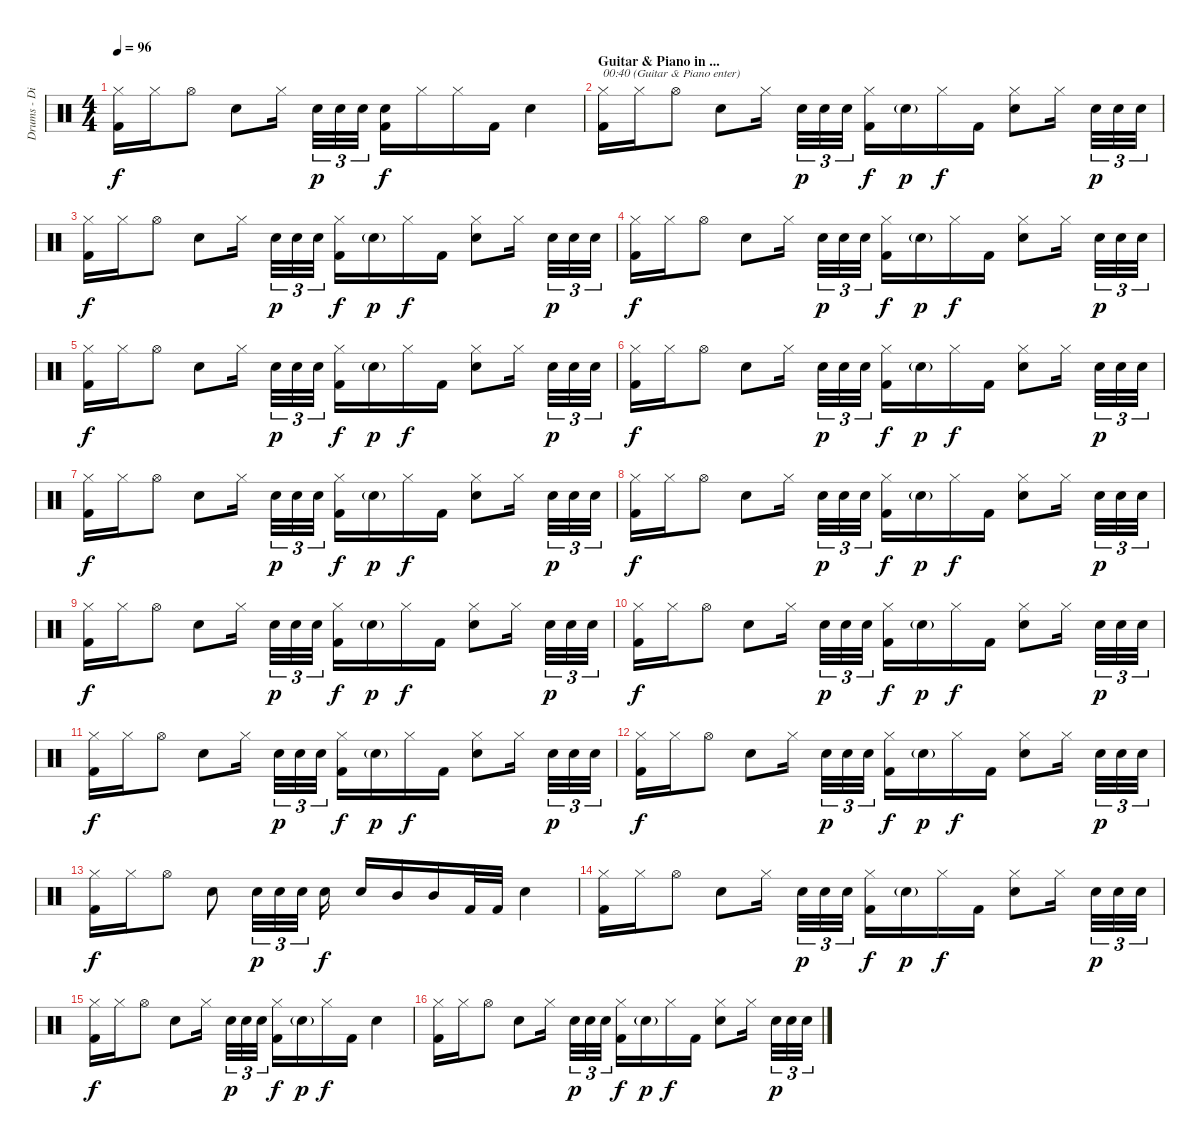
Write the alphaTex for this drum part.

\track ("Drums - Dino Campanella" "Drums - Di") {instrument percussion}
\staff {score}
\articulation defaults
\ts (4 4)
\tempo 96
\clef neutral
\ks c
("Hi-Hat (closed)" "Kick (hit) 2").16{dy f} "Hi-Hat (closed)".16 "Hi-Hat (open)".8 "Electric Snare (hit)".8 "Hi-Hat (closed)".16 "Electric Snare (hit)".32{tu (3 2) dy p} "Electric Snare (hit)".32{tu (3 2)} "Electric Snare (hit)".32{tu (3 2)} ("Electric Snare (hit)" "Kick (hit) 2").16{dy f} "Hi-Hat (closed)".16 "Hi-Hat (closed)".16 "Kick (hit) 2".16 "Electric Snare (hit)".4 |
\section ("" "Guitar & Piano in ...")
("Hi-Hat (closed)" "Kick (hit) 2").16{txt "00:40 (Guitar & Piano enter)"} "Hi-Hat (closed)".16 "Hi-Hat (open)".8 "Electric Snare (hit)".8 "Hi-Hat (closed)".16 "Electric Snare (hit)".32{tu (3 2) dy p} "Electric Snare (hit)".32{tu (3 2)} "Electric Snare (hit)".32{tu (3 2)} ("Hi-Hat (closed)" "Kick (hit) 2").16{dy f} "Electric Snare (hit)"{g}.16{dy p} "Hi-Hat (closed)".16{dy f} "Kick (hit) 2".16 ("Hi-Hat (closed)" "Electric Snare (hit)").8 "Hi-Hat (closed)".16 "Electric Snare (hit)".32{tu (3 2) dy p} "Electric Snare (hit)".32{tu (3 2)} "Electric Snare (hit)".32{tu (3 2)} |
("Hi-Hat (closed)" "Kick (hit) 2").16{dy f} "Hi-Hat (closed)".16 "Hi-Hat (open)".8 "Electric Snare (hit)".8 "Hi-Hat (closed)".16 "Electric Snare (hit)".32{tu (3 2) dy p} "Electric Snare (hit)".32{tu (3 2)} "Electric Snare (hit)".32{tu (3 2)} ("Hi-Hat (closed)" "Kick (hit) 2").16{dy f} "Electric Snare (hit)"{g}.16{dy p} "Hi-Hat (closed)".16{dy f} "Kick (hit) 2".16 ("Hi-Hat (closed)" "Electric Snare (hit)").8 "Hi-Hat (closed)".16 "Electric Snare (hit)".32{tu (3 2) dy p} "Electric Snare (hit)".32{tu (3 2)} "Electric Snare (hit)".32{tu (3 2)} |
("Hi-Hat (closed)" "Kick (hit) 2").16{dy f} "Hi-Hat (closed)".16 "Hi-Hat (open)".8 "Electric Snare (hit)".8 "Hi-Hat (closed)".16 "Electric Snare (hit)".32{tu (3 2) dy p} "Electric Snare (hit)".32{tu (3 2)} "Electric Snare (hit)".32{tu (3 2)} ("Hi-Hat (closed)" "Kick (hit) 2").16{dy f} "Electric Snare (hit)"{g}.16{dy p} "Hi-Hat (closed)".16{dy f} "Kick (hit) 2".16 ("Hi-Hat (closed)" "Electric Snare (hit)").8 "Hi-Hat (closed)".16 "Electric Snare (hit)".32{tu (3 2) dy p} "Electric Snare (hit)".32{tu (3 2)} "Electric Snare (hit)".32{tu (3 2)} |
("Hi-Hat (closed)" "Kick (hit) 2").16{dy f} "Hi-Hat (closed)".16 "Hi-Hat (open)".8 "Electric Snare (hit)".8 "Hi-Hat (closed)".16 "Electric Snare (hit)".32{tu (3 2) dy p} "Electric Snare (hit)".32{tu (3 2)} "Electric Snare (hit)".32{tu (3 2)} ("Hi-Hat (closed)" "Kick (hit) 2").16{dy f} "Electric Snare (hit)"{g}.16{dy p} "Hi-Hat (closed)".16{dy f} "Kick (hit) 2".16 ("Hi-Hat (closed)" "Electric Snare (hit)").8 "Hi-Hat (closed)".16 "Electric Snare (hit)".32{tu (3 2) dy p} "Electric Snare (hit)".32{tu (3 2)} "Electric Snare (hit)".32{tu (3 2)} |
("Hi-Hat (closed)" "Kick (hit) 2").16{dy f} "Hi-Hat (closed)".16 "Hi-Hat (open)".8 "Electric Snare (hit)".8 "Hi-Hat (closed)".16 "Electric Snare (hit)".32{tu (3 2) dy p} "Electric Snare (hit)".32{tu (3 2)} "Electric Snare (hit)".32{tu (3 2)} ("Hi-Hat (closed)" "Kick (hit) 2").16{dy f} "Electric Snare (hit)"{g}.16{dy p} "Hi-Hat (closed)".16{dy f} "Kick (hit) 2".16 ("Hi-Hat (closed)" "Electric Snare (hit)").8 "Hi-Hat (closed)".16 "Electric Snare (hit)".32{tu (3 2) dy p} "Electric Snare (hit)".32{tu (3 2)} "Electric Snare (hit)".32{tu (3 2)} |
("Hi-Hat (closed)" "Kick (hit) 2").16{dy f} "Hi-Hat (closed)".16 "Hi-Hat (open)".8 "Electric Snare (hit)".8 "Hi-Hat (closed)".16 "Electric Snare (hit)".32{tu (3 2) dy p} "Electric Snare (hit)".32{tu (3 2)} "Electric Snare (hit)".32{tu (3 2)} ("Hi-Hat (closed)" "Kick (hit) 2").16{dy f} "Electric Snare (hit)"{g}.16{dy p} "Hi-Hat (closed)".16{dy f} "Kick (hit) 2".16 ("Hi-Hat (closed)" "Electric Snare (hit)").8 "Hi-Hat (closed)".16 "Electric Snare (hit)".32{tu (3 2) dy p} "Electric Snare (hit)".32{tu (3 2)} "Electric Snare (hit)".32{tu (3 2)} |
("Hi-Hat (closed)" "Kick (hit) 2").16{dy f} "Hi-Hat (closed)".16 "Hi-Hat (open)".8 "Electric Snare (hit)".8 "Hi-Hat (closed)".16 "Electric Snare (hit)".32{tu (3 2) dy p} "Electric Snare (hit)".32{tu (3 2)} "Electric Snare (hit)".32{tu (3 2)} ("Hi-Hat (closed)" "Kick (hit) 2").16{dy f} "Electric Snare (hit)"{g}.16{dy p} "Hi-Hat (closed)".16{dy f} "Kick (hit) 2".16 ("Hi-Hat (closed)" "Electric Snare (hit)").8 "Hi-Hat (closed)".16 "Electric Snare (hit)".32{tu (3 2) dy p} "Electric Snare (hit)".32{tu (3 2)} "Electric Snare (hit)".32{tu (3 2)} |
("Hi-Hat (closed)" "Kick (hit) 2").16{dy f} "Hi-Hat (closed)".16 "Hi-Hat (open)".8 "Electric Snare (hit)".8 "Hi-Hat (closed)".16 "Electric Snare (hit)".32{tu (3 2) dy p} "Electric Snare (hit)".32{tu (3 2)} "Electric Snare (hit)".32{tu (3 2)} ("Hi-Hat (closed)" "Kick (hit) 2").16{dy f} "Electric Snare (hit)"{g}.16{dy p} "Hi-Hat (closed)".16{dy f} "Kick (hit) 2".16 ("Hi-Hat (closed)" "Electric Snare (hit)").8 "Hi-Hat (closed)".16 "Electric Snare (hit)".32{tu (3 2) dy p} "Electric Snare (hit)".32{tu (3 2)} "Electric Snare (hit)".32{tu (3 2)} |
("Hi-Hat (closed)" "Kick (hit) 2").16{dy f} "Hi-Hat (closed)".16 "Hi-Hat (open)".8 "Electric Snare (hit)".8 "Hi-Hat (closed)".16 "Electric Snare (hit)".32{tu (3 2) dy p} "Electric Snare (hit)".32{tu (3 2)} "Electric Snare (hit)".32{tu (3 2)} ("Hi-Hat (closed)" "Kick (hit) 2").16{dy f} "Electric Snare (hit)"{g}.16{dy p} "Hi-Hat (closed)".16{dy f} "Kick (hit) 2".16 ("Hi-Hat (closed)" "Electric Snare (hit)").8 "Hi-Hat (closed)".16 "Electric Snare (hit)".32{tu (3 2) dy p} "Electric Snare (hit)".32{tu (3 2)} "Electric Snare (hit)".32{tu (3 2)} |
("Hi-Hat (closed)" "Kick (hit) 2").16{dy f} "Hi-Hat (closed)".16 "Hi-Hat (open)".8 "Electric Snare (hit)".8 "Hi-Hat (closed)".16 "Electric Snare (hit)".32{tu (3 2) dy p} "Electric Snare (hit)".32{tu (3 2)} "Electric Snare (hit)".32{tu (3 2)} ("Hi-Hat (closed)" "Kick (hit) 2").16{dy f} "Electric Snare (hit)"{g}.16{dy p} "Hi-Hat (closed)".16{dy f} "Kick (hit) 2".16 ("Hi-Hat (closed)" "Electric Snare (hit)").8 "Hi-Hat (closed)".16 "Electric Snare (hit)".32{tu (3 2) dy p} "Electric Snare (hit)".32{tu (3 2)} "Electric Snare (hit)".32{tu (3 2)} |
("Hi-Hat (closed)" "Kick (hit) 2").16{dy f} "Hi-Hat (closed)".16 "Hi-Hat (open)".8 "Electric Snare (hit)".8 "Hi-Hat (closed)".16 "Electric Snare (hit)".32{tu (3 2) dy p} "Electric Snare (hit)".32{tu (3 2)} "Electric Snare (hit)".32{tu (3 2)} ("Hi-Hat (closed)" "Kick (hit) 2").16{dy f} "Electric Snare (hit)"{g}.16{dy p} "Hi-Hat (closed)".16{dy f} "Kick (hit) 2".16 ("Hi-Hat (closed)" "Electric Snare (hit)").8 "Hi-Hat (closed)".16 "Electric Snare (hit)".32{tu (3 2) dy p} "Electric Snare (hit)".32{tu (3 2)} "Electric Snare (hit)".32{tu (3 2)} |
("Hi-Hat (closed)" "Kick (hit) 2").16{dy f} "Hi-Hat (closed)".16 "Hi-Hat (open)".8 "Electric Snare (hit)".8 "Electric Snare (hit)".32{tu (3 2) dy p} "Electric Snare (hit)".32{tu (3 2)} "Electric Snare (hit)".32{tu (3 2)} "Electric Snare (hit)".16{dy f} "Electric Snare (hit)".16 "Mid Tom (hit)".16 "Mid Tom (hit)".16 "Kick (hit) 2".32 "Kick (hit) 2".32 "Electric Snare (hit)".4 |
("Hi-Hat (closed)" "Kick (hit) 2").16 "Hi-Hat (closed)".16 "Hi-Hat (open)".8 "Electric Snare (hit)".8 "Hi-Hat (closed)".16 "Electric Snare (hit)".32{tu (3 2) dy p} "Electric Snare (hit)".32{tu (3 2)} "Electric Snare (hit)".32{tu (3 2)} ("Hi-Hat (closed)" "Kick (hit) 2").16{dy f} "Electric Snare (hit)"{g}.16{dy p} "Hi-Hat (closed)".16{dy f} "Kick (hit) 2".16 ("Hi-Hat (closed)" "Electric Snare (hit)").8 "Hi-Hat (closed)".16 "Electric Snare (hit)".32{tu (3 2) dy p} "Electric Snare (hit)".32{tu (3 2)} "Electric Snare (hit)".32{tu (3 2)} |
("Hi-Hat (closed)" "Kick (hit) 2").16{dy f} "Hi-Hat (closed)".16 "Hi-Hat (open)".8 "Electric Snare (hit)".8 "Hi-Hat (closed)".16 "Electric Snare (hit)".32{tu (3 2) dy p} "Electric Snare (hit)".32{tu (3 2)} "Electric Snare (hit)".32{tu (3 2)} ("Hi-Hat (closed)" "Kick (hit) 2").16{dy f} "Electric Snare (hit)"{g}.16{dy p} "Hi-Hat (closed)".16{dy f} "Kick (hit) 2".16 "Electric Snare (hit)".4 |
("Hi-Hat (closed)" "Kick (hit) 2").16 "Hi-Hat (closed)".16 "Hi-Hat (open)".8 "Electric Snare (hit)".8 "Hi-Hat (closed)".16 "Electric Snare (hit)".32{tu (3 2) dy p} "Electric Snare (hit)".32{tu (3 2)} "Electric Snare (hit)".32{tu (3 2)} ("Hi-Hat (closed)" "Kick (hit) 2").16{dy f} "Electric Snare (hit)"{g}.16{dy p} "Hi-Hat (closed)".16{dy f} "Kick (hit) 2".16 ("Hi-Hat (closed)" "Electric Snare (hit)").8 "Hi-Hat (closed)".16 "Electric Snare (hit)".32{tu (3 2) dy p} "Electric Snare (hit)".32{tu (3 2)} "Electric Snare (hit)".32{tu (3 2)}
